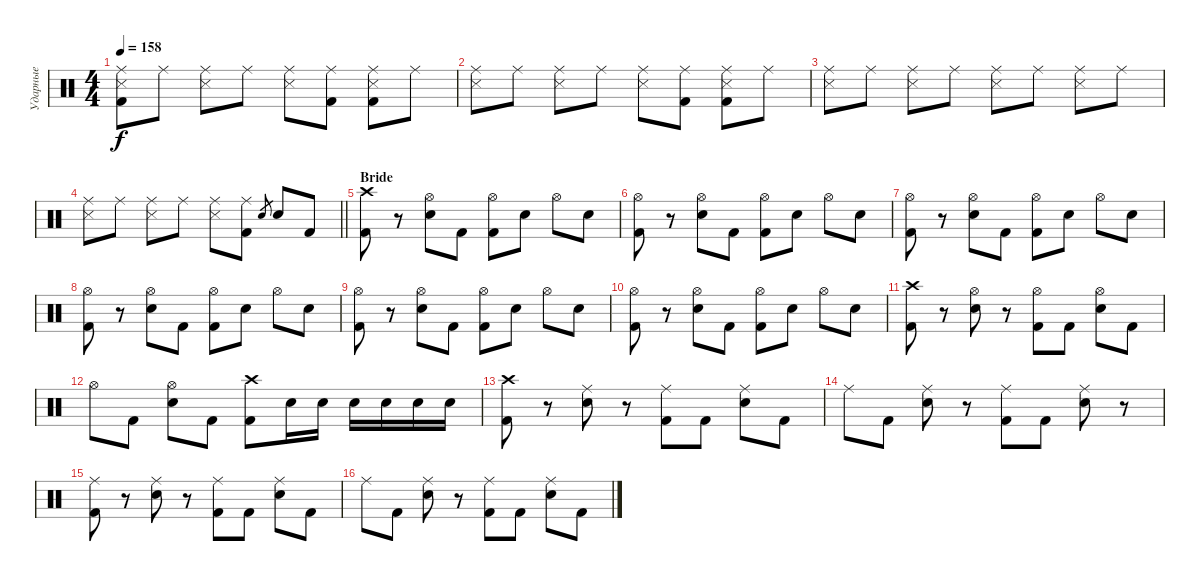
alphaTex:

\track ("Ударные" "Ударные") {instrument percussion}
\staff {score}
\articulation defaults
\ts (4 4)
\tempo 158
\clef neutral
\ks c
("Ride (middle)" "Snare (side stick) 3" "Kick (hit) 2").8{dy f} "Ride (middle)".8 ("Ride (middle)" "Snare (side stick) 3").8 "Ride (middle)".8 ("Ride (middle)" "Snare (side stick) 3").8 ("Ride (middle)" "Kick (hit) 2").8 ("Ride (middle)" "Snare (side stick) 3" "Kick (hit) 2").8 "Ride (middle)".8 |
("Ride (middle)" "Snare (side stick) 3").8 "Ride (middle)".8 ("Ride (middle)" "Snare (side stick) 3").8 "Ride (middle)".8 ("Ride (middle)" "Snare (side stick) 3").8 ("Ride (middle)" "Kick (hit) 2").8 ("Ride (middle)" "Snare (side stick) 3" "Kick (hit) 2").8 "Ride (middle)".8 |
("Ride (middle)" "Snare (side stick) 3").8 "Ride (middle)".8 ("Ride (middle)" "Snare (side stick) 3").8 "Ride (middle)".8 ("Ride (middle)" "Snare (side stick) 3").8 "Ride (middle)".8 ("Ride (middle)" "Snare (side stick) 3").8 "Ride (middle)".8 |
\barLineRight lightlight
("Ride (middle)" "Snare (side stick) 3").8 "Ride (middle)".8 ("Ride (middle)" "Snare (side stick) 3").8 "Ride (middle)".8 ("Ride (middle)" "Snare (side stick) 3").8 ("Ride (middle)" "Kick (hit) 2").8 "Electric Snare (hit)".8{gr} "Electric Snare (hit)".8 "Kick (hit) 2".8 |
\section ("" "Bride")
("Crash high (hit)" "Kick (hit) 2").8 r.8 ("Hi-Hat (open)" "Electric Snare (hit)").8 "Kick (hit) 2".8 ("Hi-Hat (open)" "Kick (hit) 2").8 "Electric Snare (hit)".8 "Hi-Hat (open)".8 "Electric Snare (hit)".8 |
("Hi-Hat (open)" "Kick (hit) 2").8 r.8 ("Hi-Hat (open)" "Electric Snare (hit)").8 "Kick (hit) 2".8 ("Hi-Hat (open)" "Kick (hit) 2").8 "Electric Snare (hit)".8 "Hi-Hat (open)".8 "Electric Snare (hit)".8 |
("Hi-Hat (open)" "Kick (hit) 2").8 r.8 ("Hi-Hat (open)" "Electric Snare (hit)").8 "Kick (hit) 2".8 ("Hi-Hat (open)" "Kick (hit) 2").8 "Electric Snare (hit)".8 "Hi-Hat (open)".8 "Electric Snare (hit)".8 |
("Hi-Hat (open)" "Kick (hit) 2").8 r.8 ("Hi-Hat (open)" "Electric Snare (hit)").8 "Kick (hit) 2".8 ("Hi-Hat (open)" "Kick (hit) 2").8 "Electric Snare (hit)".8 "Hi-Hat (open)".8 "Electric Snare (hit)".8 |
("Hi-Hat (open)" "Kick (hit) 2").8 r.8 ("Hi-Hat (open)" "Electric Snare (hit)").8 "Kick (hit) 2".8 ("Hi-Hat (open)" "Kick (hit) 2").8 "Electric Snare (hit)".8 "Hi-Hat (open)".8 "Electric Snare (hit)".8 |
("Hi-Hat (open)" "Kick (hit) 2").8 r.8 ("Hi-Hat (open)" "Electric Snare (hit)").8 "Kick (hit) 2".8 ("Hi-Hat (open)" "Kick (hit) 2").8 "Electric Snare (hit)".8 "Hi-Hat (open)".8 "Electric Snare (hit)".8 |
("Crash high (hit)" "Kick (hit) 2").8 r.8 ("Hi-Hat (open)" "Electric Snare (hit)").8 r.8 ("Hi-Hat (open)" "Kick (hit) 2").8 "Kick (hit) 2".8 ("Hi-Hat (open)" "Electric Snare (hit)").8 "Kick (hit) 2".8 |
"Hi-Hat (open)".8 "Kick (hit) 2".8 ("Hi-Hat (open)" "Electric Snare (hit)").8 "Kick (hit) 2".8 ("Crash high (hit)" "Kick (hit) 2").8 "Electric Snare (hit)".16 "Electric Snare (hit)".16 "Electric Snare (hit)".16 "Electric Snare (hit)".16 "Electric Snare (hit)".16 "Electric Snare (hit)".16 |
("Crash high (hit)" "Kick (hit) 2").8 r.8 ("Ride (middle)" "Electric Snare (hit)").8 r.8 ("Ride (middle)" "Kick (hit) 2").8 "Kick (hit) 2".8 ("Ride (middle)" "Electric Snare (hit)").8 "Kick (hit) 2".8 |
"Ride (middle)".8 "Kick (hit) 2".8 ("Ride (middle)" "Electric Snare (hit)").8 r.8 ("Ride (middle)" "Kick (hit) 2").8 "Kick (hit) 2".8 ("Ride (middle)" "Electric Snare (hit)").8 r.8 |
("Ride (middle)" "Kick (hit) 2").8 r.8 ("Ride (middle)" "Electric Snare (hit)").8 r.8 ("Ride (middle)" "Kick (hit) 2").8 "Kick (hit) 2".8 ("Ride (middle)" "Electric Snare (hit)").8 "Kick (hit) 2".8 |
"Ride (middle)".8 "Kick (hit) 2".8 ("Ride (middle)" "Electric Snare (hit)").8 r.8 ("Ride (middle)" "Kick (hit) 2").8 "Kick (hit) 2".8 ("Ride (middle)" "Electric Snare (hit)").8 "Kick (hit) 2".8
